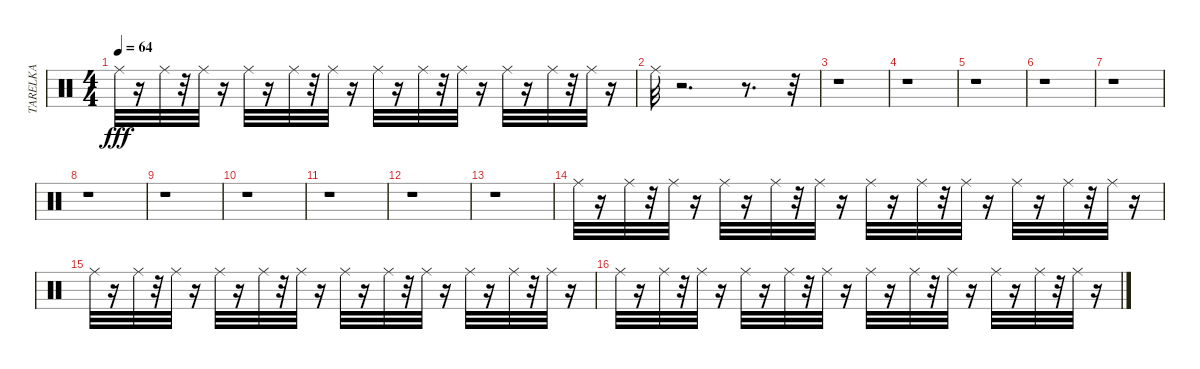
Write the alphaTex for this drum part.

\track ("TARELKA" "TARELKA") {instrument percussion}
\staff {score}
\articulation defaults
\ts (4 4)
\tempo 64
\clef neutral
\ks c "Ride (middle)".32{dy fff}
r.16 "Ride (middle)".32 r.32 "Ride (middle)".32 r.16 "Ride (middle)".32 r.16 "Ride (middle)".32 r.32 "Ride (middle)".32 r.16 "Ride (middle)".32 r.16 "Ride (middle)".32 r.32 "Ride (middle)".32 r.16 "Ride (middle)".32 r.16 "Ride (middle)".32 r.32 "Ride (middle)".32 r.16 |
"Ride (middle)".32 r.2{d} r.8{d} r.32 |
r.1 |
r.1 |
r.1 |
r.1 |
r.1 |
r.1 |
r.1 |
r.1 |
r.1 |
r.1 |
r.1 |
"Ride (middle)".32 r.16 "Ride (middle)".32 r.32 "Ride (middle)".32 r.16 "Ride (middle)".32 r.16 "Ride (middle)".32 r.32 "Ride (middle)".32 r.16 "Ride (middle)".32 r.16 "Ride (middle)".32 r.32 "Ride (middle)".32 r.16 "Ride (middle)".32 r.16 "Ride (middle)".32 r.32 "Ride (middle)".32 r.16 |
"Ride (middle)".32 r.16 "Ride (middle)".32 r.32 "Ride (middle)".32 r.16 "Ride (middle)".32 r.16 "Ride (middle)".32 r.32 "Ride (middle)".32 r.16 "Ride (middle)".32 r.16 "Ride (middle)".32 r.32 "Ride (middle)".32 r.16 "Ride (middle)".32 r.16 "Ride (middle)".32 r.32 "Ride (middle)".32 r.16 |
"Ride (middle)".32 r.16 "Ride (middle)".32 r.32 "Ride (middle)".32 r.16 "Ride (middle)".32 r.16 "Ride (middle)".32 r.32 "Ride (middle)".32 r.16 "Ride (middle)".32 r.16 "Ride (middle)".32 r.32 "Ride (middle)".32 r.16 "Ride (middle)".32 r.16 "Ride (middle)".32 r.32 "Ride (middle)".32 r.16
